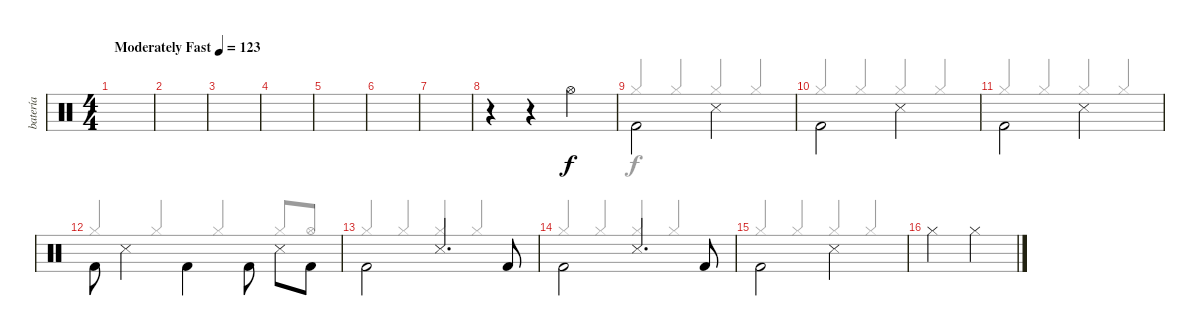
\track ("batería" "batería") {instrument percussion}
\staff {score}
\articulation defaults
\voice
\ts (4 4)
\tempo (123 "Moderately Fast")
\clef neutral
\ks c
|
|
|
|
|
|
|
r.4 r.4 "Hi-Hat (open)".2 |
"Kick (hit) 2".2{beam Down} "Snare (side stick) 3".2{beam Down} |
"Kick (hit) 2".2{beam Down} "Snare (side stick) 3".2{beam Down} |
"Kick (hit) 2".2{beam Down} "Snare (side stick) 3".2{beam Down} |
"Kick (hit) 2".8{beam Down} "Snare (side stick) 3".4{beam Down} "Kick (hit) 2".4{beam Down} "Kick (hit) 2".8{beam Down} "Snare (side stick) 3".8{beam Down} "Kick (hit) 2".8{beam Down} |
"Kick (hit) 2".2{beam Down} "Snare (side stick) 3".4{d} "Kick (hit) 2".8 |
"Kick (hit) 2".2{beam Down} "Snare (side stick) 3".4{d} "Kick (hit) 2".8 |
"Kick (hit) 2".2{beam Down} "Snare (side stick) 3".2{beam Down} |
"Hi-Hat (closed)".2 "Hi-Hat (closed)".2
\voice
\clef neutral
\ottava regular
\simile none
\ks c
|
|
|
|
|
|
|
|
"Hi-Hat (closed)".4{beam Up} "Hi-Hat (closed)".4{beam Up} "Hi-Hat (closed)".4{beam Up} "Hi-Hat (closed)".4{beam Up} |
"Hi-Hat (closed)".4{beam Up} "Hi-Hat (closed)".4{beam Up} "Hi-Hat (closed)".4{beam Up} "Hi-Hat (closed)".4{beam Up} |
"Hi-Hat (closed)".4{beam Up} "Hi-Hat (closed)".4{beam Up} "Hi-Hat (closed)".4{beam Up} "Hi-Hat (closed)".4{beam Up} |
"Hi-Hat (closed)".4{beam Up} "Hi-Hat (closed)".4{beam Up} "Hi-Hat (closed)".4{beam Up} "Hi-Hat (closed)".8{beam Up} "Hi-Hat (open)".8{beam Up} |
"Hi-Hat (closed)".4{beam Up} "Hi-Hat (closed)".4{beam Up} "Hi-Hat (closed)".4{beam Up} "Hi-Hat (closed)".4{beam Up} |
"Hi-Hat (closed)".4{beam Up} "Hi-Hat (closed)".4{beam Up} "Hi-Hat (closed)".4{beam Up} "Hi-Hat (closed)".4{beam Up} |
"Hi-Hat (closed)".4{beam Up} "Hi-Hat (closed)".4{beam Up} "Hi-Hat (closed)".4{beam Up} "Hi-Hat (closed)".4{beam Up} |
